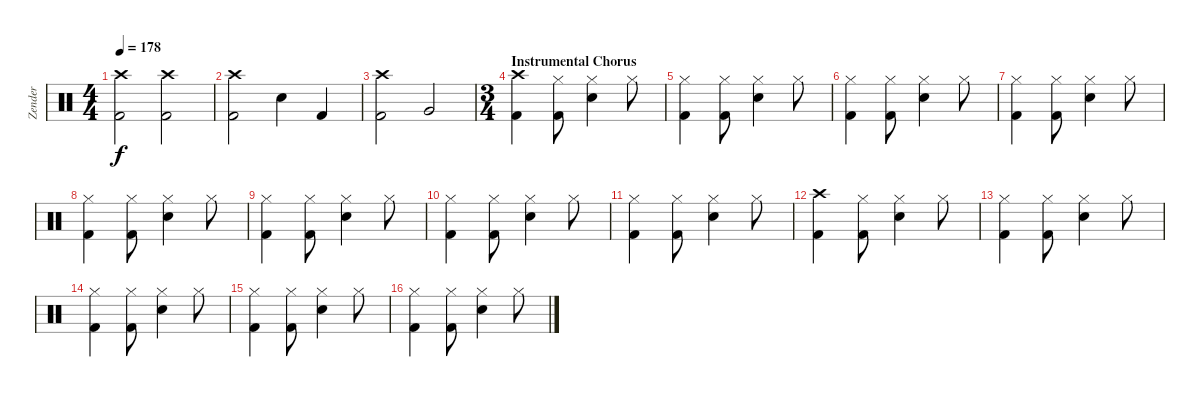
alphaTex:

\track ("Zender" "Zender") {instrument percussion}
\staff {score}
\articulation defaults
\ts (4 4)
\tempo 178
\clef neutral
\ks c
("Crash high (hit)" "Kick (hit) 2").2{dy f} ("Crash high (hit)" "Kick (hit) 2").2 |
("Crash high (hit)" "Kick (hit) 2").2 "Electric Snare (hit)".4 "Kick (hit) 2".4 |
("Crash high (hit)" "Kick (hit) 2").2 "Very Low Tom (hit)".2 |
\ts (3 4)
\section ("" "Instrumental Chorus")
("Crash high (hit)" "Kick (hit) 2").4 ("Hi-Hat (closed)" "Kick (hit) 2").8 ("Electric Snare (hit)" "Hi-Hat (closed)").4 "Hi-Hat (closed)".8 |
("Hi-Hat (closed)" "Kick (hit) 2").4 ("Hi-Hat (closed)" "Kick (hit) 2").8 ("Electric Snare (hit)" "Hi-Hat (closed)").4 "Hi-Hat (closed)".8 |
("Hi-Hat (closed)" "Kick (hit) 2").4 ("Hi-Hat (closed)" "Kick (hit) 2").8 ("Electric Snare (hit)" "Hi-Hat (closed)").4 "Hi-Hat (closed)".8 |
("Hi-Hat (closed)" "Kick (hit) 2").4 ("Hi-Hat (closed)" "Kick (hit) 2").8 ("Electric Snare (hit)" "Hi-Hat (closed)").4 "Hi-Hat (closed)".8 |
("Hi-Hat (closed)" "Kick (hit) 2").4 ("Hi-Hat (closed)" "Kick (hit) 2").8 ("Electric Snare (hit)" "Hi-Hat (closed)").4 "Hi-Hat (closed)".8 |
("Hi-Hat (closed)" "Kick (hit) 2").4 ("Hi-Hat (closed)" "Kick (hit) 2").8 ("Electric Snare (hit)" "Hi-Hat (closed)").4 "Hi-Hat (closed)".8 |
("Hi-Hat (closed)" "Kick (hit) 2").4 ("Hi-Hat (closed)" "Kick (hit) 2").8 ("Electric Snare (hit)" "Hi-Hat (closed)").4 "Hi-Hat (closed)".8 |
("Hi-Hat (closed)" "Kick (hit) 2").4 ("Hi-Hat (closed)" "Kick (hit) 2").8 ("Electric Snare (hit)" "Hi-Hat (closed)").4 "Hi-Hat (closed)".8 |
("Crash high (hit)" "Kick (hit) 2").4 ("Hi-Hat (closed)" "Kick (hit) 2").8 ("Electric Snare (hit)" "Hi-Hat (closed)").4 "Hi-Hat (closed)".8 |
("Hi-Hat (closed)" "Kick (hit) 2").4 ("Hi-Hat (closed)" "Kick (hit) 2").8 ("Electric Snare (hit)" "Hi-Hat (closed)").4 "Hi-Hat (closed)".8 |
("Hi-Hat (closed)" "Kick (hit) 2").4 ("Hi-Hat (closed)" "Kick (hit) 2").8 ("Electric Snare (hit)" "Hi-Hat (closed)").4 "Hi-Hat (closed)".8 |
("Hi-Hat (closed)" "Kick (hit) 2").4 ("Hi-Hat (closed)" "Kick (hit) 2").8 ("Electric Snare (hit)" "Hi-Hat (closed)").4 "Hi-Hat (closed)".8 |
("Hi-Hat (closed)" "Kick (hit) 2").4 ("Hi-Hat (closed)" "Kick (hit) 2").8 ("Electric Snare (hit)" "Hi-Hat (closed)").4 "Hi-Hat (closed)".8
